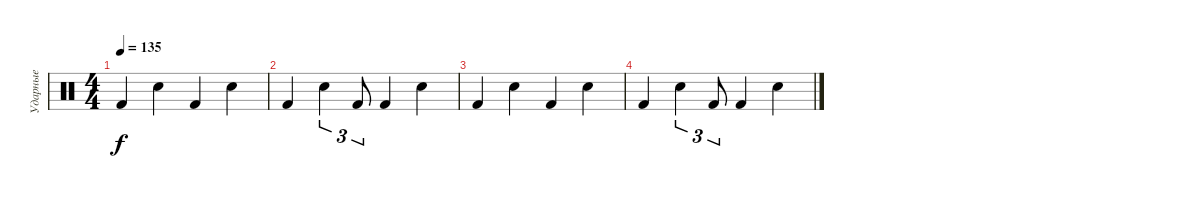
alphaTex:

\track ("Ударные" "Ударные") {instrument percussion}
\staff {score}
\articulation defaults
\ts (4 4)
\tempo 135
\clef neutral
\ks c "Kick (hit) 2".4{dy f} "Electric Snare (hit)".4 "Kick (hit) 2".4 "Electric Snare (hit)".4
|
"Kick (hit) 2".4 "Electric Snare (hit)".4{tu (3 2)} "Kick (hit) 2".8{tu (3 2)} "Kick (hit) 2".4 "Electric Snare (hit)".4 |
"Kick (hit) 2".4 "Electric Snare (hit)".4 "Kick (hit) 2".4 "Electric Snare (hit)".4 |
"Kick (hit) 2".4 "Electric Snare (hit)".4{tu (3 2)} "Kick (hit) 2".8{tu (3 2)} "Kick (hit) 2".4 "Electric Snare (hit)".4
